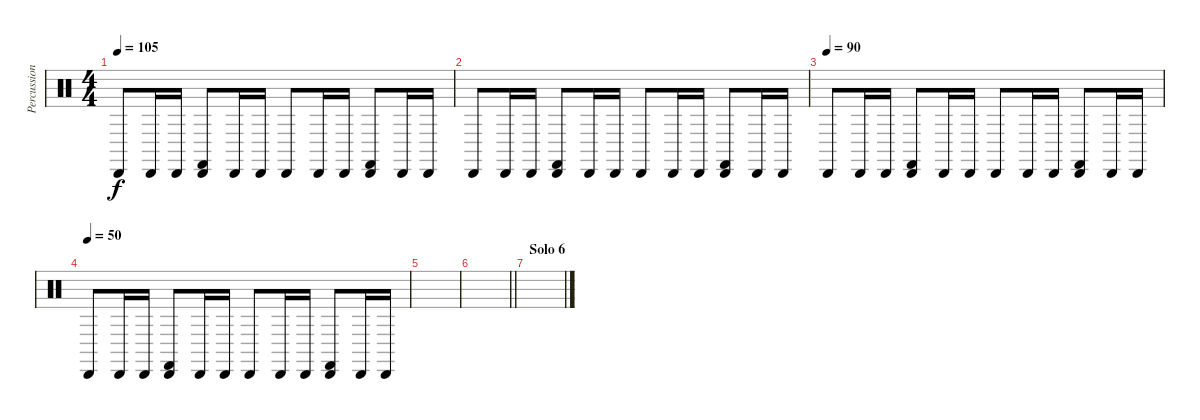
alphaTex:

\track ("Percussion" "Percussion") {instrument percussion}
\staff {score}
\articulation defaults
\ts (4 4)
\tempo 105
\clef neutral
\ks c "Cabasa (hit)".8{dy f} "Cabasa (hit)".16 "Cabasa (hit)".16
("Cabasa (hit)" "Castanets (hit)").8 "Cabasa (hit)".16 "Cabasa (hit)".16 "Cabasa (hit)".8 "Cabasa (hit)".16 "Cabasa (hit)".16 ("Cabasa (hit)" "Castanets (hit)").8 "Cabasa (hit)".16 "Cabasa (hit)".16 |
"Cabasa (hit)".8 "Cabasa (hit)".16 "Cabasa (hit)".16 ("Cabasa (hit)" "Castanets (hit)").8 "Cabasa (hit)".16 "Cabasa (hit)".16 "Cabasa (hit)".8 "Cabasa (hit)".16 "Cabasa (hit)".16 ("Cabasa (hit)" "Castanets (hit)").8 "Cabasa (hit)".16 "Cabasa (hit)".16 |
\tempo (90)
"Cabasa (hit)".8 "Cabasa (hit)".16 "Cabasa (hit)".16 ("Cabasa (hit)" "Castanets (hit)").8 "Cabasa (hit)".16 "Cabasa (hit)".16 "Cabasa (hit)".8 "Cabasa (hit)".16 "Cabasa (hit)".16 ("Cabasa (hit)" "Castanets (hit)").8 "Cabasa (hit)".16 "Cabasa (hit)".16 |
\tempo (50)
"Cabasa (hit)".8 "Cabasa (hit)".16 "Cabasa (hit)".16 ("Cabasa (hit)" "Castanets (hit)").8 "Cabasa (hit)".16 "Cabasa (hit)".16 "Cabasa (hit)".8 "Cabasa (hit)".16 "Cabasa (hit)".16 ("Cabasa (hit)" "Castanets (hit)").8 "Cabasa (hit)".16 "Cabasa (hit)".16 |
|
\barLineRight lightlight
|
\section ("" "Solo 6")
